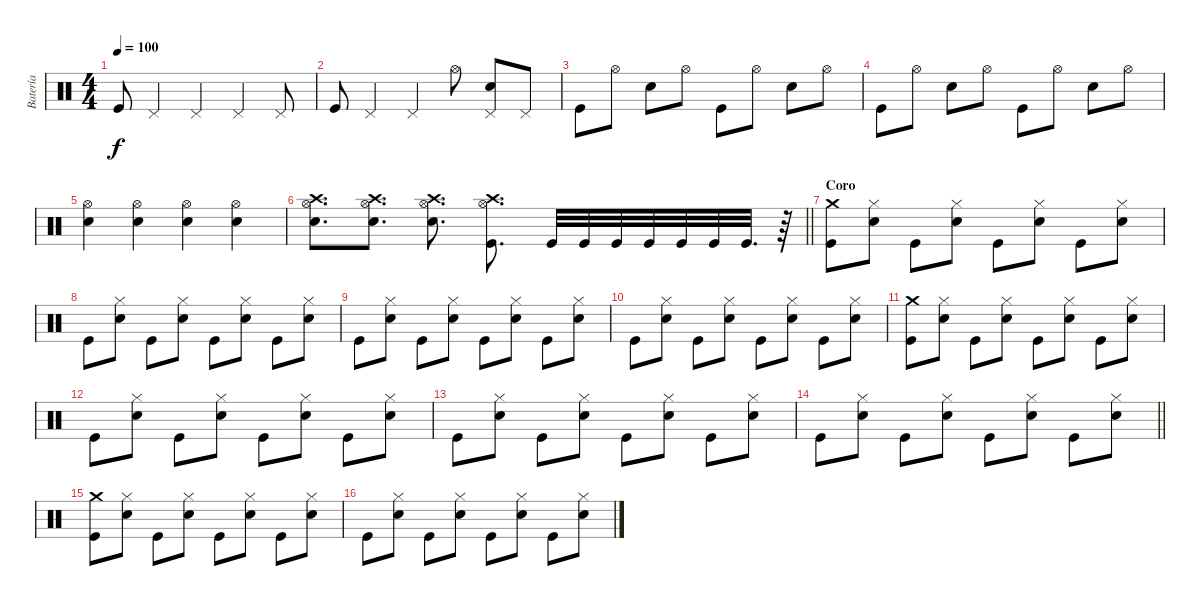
\track ("Batería" "Batería") {instrument percussion}
\staff {score}
\articulation defaults
\ts (4 4)
\tempo 100
\clef neutral
\ks c "Kick (hit)".8{dy f} "Pedal Hi-Hat (hit)".4 "Pedal Hi-Hat (hit)".4 "Pedal Hi-Hat (hit)".4 "Pedal Hi-Hat (hit)".8
|
"Kick (hit)".8 "Pedal Hi-Hat (hit)".4 "Pedal Hi-Hat (hit)".4 "Hi-Hat (open)".8 ("Electric Snare (hit)" "Pedal Hi-Hat (hit)").8 "Pedal Hi-Hat (hit)".8 |
"Kick (hit)".8 "Hi-Hat (open)".8 "Electric Snare (hit)".8 "Hi-Hat (open)".8 "Kick (hit)".8 "Hi-Hat (open)".8 "Electric Snare (hit)".8 "Hi-Hat (open)".8 |
"Kick (hit)".8 "Hi-Hat (open)".8 "Electric Snare (hit)".8 "Hi-Hat (open)".8 "Kick (hit)".8 "Hi-Hat (open)".8 "Electric Snare (hit)".8 "Hi-Hat (open)".8 |
("Electric Snare (hit)" "Hi-Hat (open)").4 ("Electric Snare (hit)" "Hi-Hat (open)").4 ("Electric Snare (hit)" "Hi-Hat (open)").4 ("Electric Snare (hit)" "Hi-Hat (open)").4 |
\barLineRight lightlight
("Electric Snare (hit)" "Hi-Hat (open)" "Crash high (hit)").8{d} ("Electric Snare (hit)" "Hi-Hat (open)" "Crash high (hit)").8{d} ("Electric Snare (hit)" "Hi-Hat (open)" "Crash high (hit)").8{d} ("Kick (hit)" "Hi-Hat (open)" "Crash high (hit)").8{d} "Kick (hit)".32 "Kick (hit)".32 "Kick (hit)".32 "Kick (hit)".32 "Kick (hit)".32 "Kick (hit)".32 "Kick (hit)".32{d} r.64 |
\section ("" "Coro")
("Kick (hit)" "Crash medium (hit)").8 ("Electric Snare (hit)" "Hi-Hat (closed)").8 "Kick (hit)".8 ("Electric Snare (hit)" "Hi-Hat (closed)").8 "Kick (hit)".8 ("Electric Snare (hit)" "Hi-Hat (closed)").8 "Kick (hit)".8 ("Electric Snare (hit)" "Hi-Hat (closed)").8 |
"Kick (hit)".8 ("Electric Snare (hit)" "Hi-Hat (closed)").8 "Kick (hit)".8 ("Electric Snare (hit)" "Hi-Hat (closed)").8 "Kick (hit)".8 ("Electric Snare (hit)" "Hi-Hat (closed)").8 "Kick (hit)".8 ("Electric Snare (hit)" "Hi-Hat (closed)").8 |
"Kick (hit)".8 ("Electric Snare (hit)" "Hi-Hat (closed)").8 "Kick (hit)".8 ("Electric Snare (hit)" "Hi-Hat (closed)").8 "Kick (hit)".8 ("Electric Snare (hit)" "Hi-Hat (closed)").8 "Kick (hit)".8 ("Electric Snare (hit)" "Hi-Hat (closed)").8 |
"Kick (hit)".8 ("Electric Snare (hit)" "Hi-Hat (closed)").8 "Kick (hit)".8 ("Electric Snare (hit)" "Hi-Hat (closed)").8 "Kick (hit)".8 ("Electric Snare (hit)" "Hi-Hat (closed)").8 "Kick (hit)".8 ("Electric Snare (hit)" "Hi-Hat (closed)").8 |
("Kick (hit)" "Crash medium (hit)").8 ("Electric Snare (hit)" "Hi-Hat (closed)").8 "Kick (hit)".8 ("Electric Snare (hit)" "Hi-Hat (closed)").8 "Kick (hit)".8 ("Electric Snare (hit)" "Hi-Hat (closed)").8 "Kick (hit)".8 ("Electric Snare (hit)" "Hi-Hat (closed)").8 |
"Kick (hit)".8 ("Electric Snare (hit)" "Hi-Hat (closed)").8 "Kick (hit)".8 ("Electric Snare (hit)" "Hi-Hat (closed)").8 "Kick (hit)".8 ("Electric Snare (hit)" "Hi-Hat (closed)").8 "Kick (hit)".8 ("Electric Snare (hit)" "Hi-Hat (closed)").8 |
"Kick (hit)".8 ("Electric Snare (hit)" "Hi-Hat (closed)").8 "Kick (hit)".8 ("Electric Snare (hit)" "Hi-Hat (closed)").8 "Kick (hit)".8 ("Electric Snare (hit)" "Hi-Hat (closed)").8 "Kick (hit)".8 ("Electric Snare (hit)" "Hi-Hat (closed)").8 |
\barLineRight lightlight "Kick (hit)".8
("Electric Snare (hit)" "Hi-Hat (closed)").8 "Kick (hit)".8 ("Electric Snare (hit)" "Hi-Hat (closed)").8 "Kick (hit)".8 ("Electric Snare (hit)" "Hi-Hat (closed)").8 "Kick (hit)".8 ("Electric Snare (hit)" "Hi-Hat (closed)").8 |
\section ("" "")
("Kick (hit)" "Crash medium (hit)").8 ("Electric Snare (hit)" "Hi-Hat (closed)").8 "Kick (hit)".8 ("Electric Snare (hit)" "Hi-Hat (closed)").8 "Kick (hit)".8 ("Electric Snare (hit)" "Hi-Hat (closed)").8 "Kick (hit)".8 ("Electric Snare (hit)" "Hi-Hat (closed)").8 |
"Kick (hit)".8 ("Electric Snare (hit)" "Hi-Hat (closed)").8 "Kick (hit)".8 ("Electric Snare (hit)" "Hi-Hat (closed)").8 "Kick (hit)".8 ("Electric Snare (hit)" "Hi-Hat (closed)").8 "Kick (hit)".8 ("Electric Snare (hit)" "Hi-Hat (closed)").8
